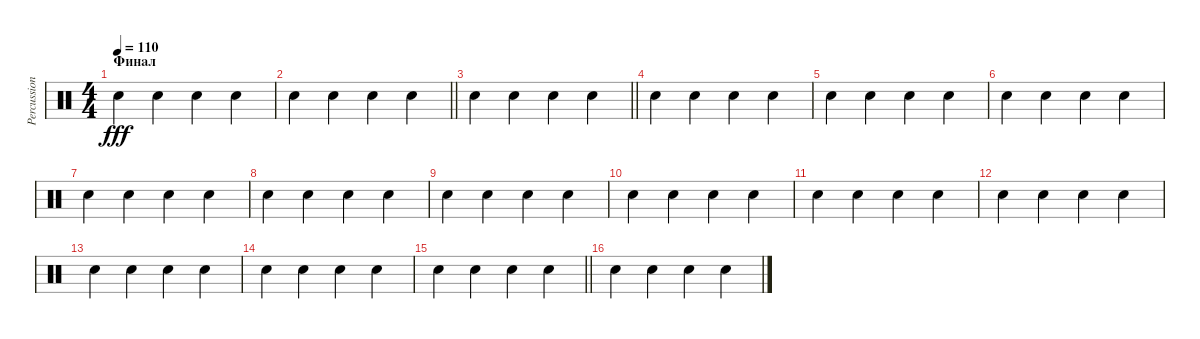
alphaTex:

\track ("Percussion" "Percussion") {mute instrument percussion}
\staff {score}
\articulation defaults
\ts (4 4)
\section ("" "Финал")
\tempo 110
\clef neutral
\ks c "Snare (hit) 2".4{dy fff} "Snare (hit) 2".4 "Snare (hit) 2".4 "Snare (hit) 2".4
|
\barLineRight lightlight "Snare (hit) 2".4 "Snare (hit) 2".4 "Snare (hit) 2".4 "Snare (hit) 2".4
|
\barLineRight lightlight "Snare (hit) 2".4 "Snare (hit) 2".4 "Snare (hit) 2".4 "Snare (hit) 2".4
|
"Snare (hit) 2".4 "Snare (hit) 2".4 "Snare (hit) 2".4 "Snare (hit) 2".4 |
"Snare (hit) 2".4 "Snare (hit) 2".4 "Snare (hit) 2".4 "Snare (hit) 2".4 |
"Snare (hit) 2".4 "Snare (hit) 2".4 "Snare (hit) 2".4 "Snare (hit) 2".4 |
"Snare (hit) 2".4 "Snare (hit) 2".4 "Snare (hit) 2".4 "Snare (hit) 2".4 |
"Snare (hit) 2".4 "Snare (hit) 2".4 "Snare (hit) 2".4 "Snare (hit) 2".4 |
"Snare (hit) 2".4 "Snare (hit) 2".4 "Snare (hit) 2".4 "Snare (hit) 2".4 |
"Snare (hit) 2".4 "Snare (hit) 2".4 "Snare (hit) 2".4 "Snare (hit) 2".4 |
"Snare (hit) 2".4 "Snare (hit) 2".4 "Snare (hit) 2".4 "Snare (hit) 2".4 |
"Snare (hit) 2".4 "Snare (hit) 2".4 "Snare (hit) 2".4 "Snare (hit) 2".4 |
"Snare (hit) 2".4 "Snare (hit) 2".4 "Snare (hit) 2".4 "Snare (hit) 2".4 |
"Snare (hit) 2".4 "Snare (hit) 2".4 "Snare (hit) 2".4 "Snare (hit) 2".4 |
\barLineRight lightlight "Snare (hit) 2".4 "Snare (hit) 2".4 "Snare (hit) 2".4 "Snare (hit) 2".4
|
"Snare (hit) 2".4 "Snare (hit) 2".4 "Snare (hit) 2".4 "Snare (hit) 2".4
